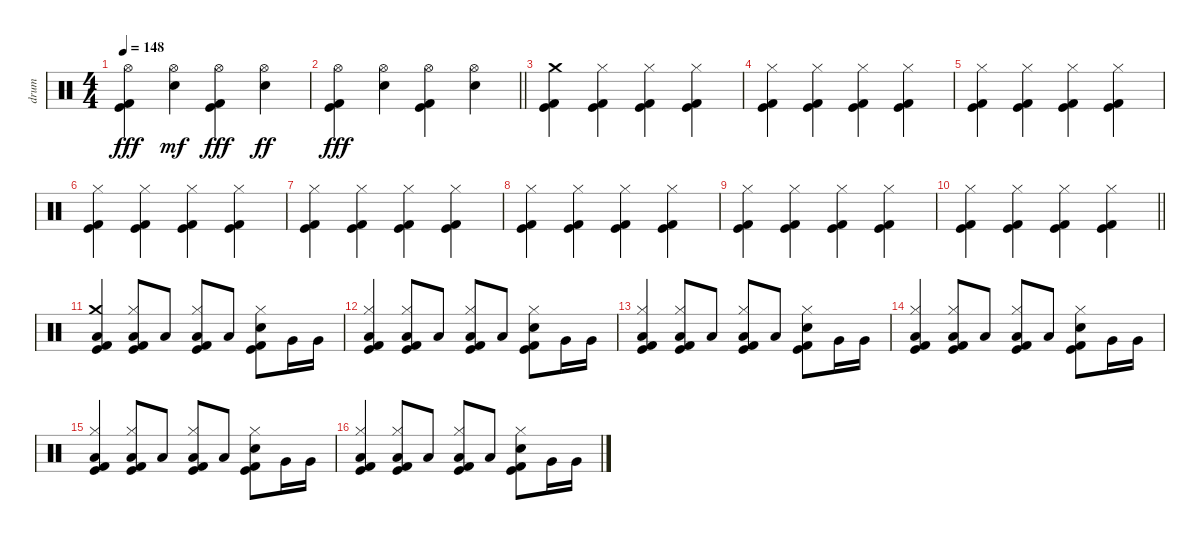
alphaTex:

\track ("drum" "drum") {instrument percussion}
\staff {score}
\articulation defaults
\ts (4 4)
\tempo 148
\clef neutral
\ks c
("Hi-Hat (open)" "Kick (hit)" "Kick (hit) 2").4{dy fff} ("Snare (hit) 2" "Hi-Hat (open)").4{dy mf} ("Hi-Hat (open)" "Kick (hit)" "Kick (hit) 2").4{dy fff} ("Snare (hit) 2" "Hi-Hat (open)").4{dy ff} |
\barLineRight lightlight
("Hi-Hat (open)" "Kick (hit)" "Kick (hit) 2").4{dy fff} ("Snare (hit) 2" "Hi-Hat (open)").4 ("Hi-Hat (open)" "Kick (hit)" "Kick (hit) 2").4 ("Snare (hit) 2" "Hi-Hat (open)").4 |
\section ("" "")
("Crash medium (hit)" "Kick (hit)" "Kick (hit) 2").4 ("Hi-Hat (closed)" "Kick (hit)" "Kick (hit) 2").4 ("Hi-Hat (closed)" "Kick (hit)" "Kick (hit) 2").4 ("Hi-Hat (closed)" "Kick (hit)" "Kick (hit) 2").4 |
("Hi-Hat (closed)" "Kick (hit)" "Kick (hit) 2").4 ("Hi-Hat (closed)" "Kick (hit)" "Kick (hit) 2").4 ("Hi-Hat (closed)" "Kick (hit)" "Kick (hit) 2").4 ("Hi-Hat (closed)" "Kick (hit)" "Kick (hit) 2").4 |
("Hi-Hat (closed)" "Kick (hit)" "Kick (hit) 2").4 ("Hi-Hat (closed)" "Kick (hit)" "Kick (hit) 2").4 ("Hi-Hat (closed)" "Kick (hit)" "Kick (hit) 2").4 ("Hi-Hat (closed)" "Kick (hit)" "Kick (hit) 2").4 |
("Hi-Hat (closed)" "Kick (hit)" "Kick (hit) 2").4 ("Hi-Hat (closed)" "Kick (hit)" "Kick (hit) 2").4 ("Hi-Hat (closed)" "Kick (hit)" "Kick (hit) 2").4 ("Hi-Hat (closed)" "Kick (hit)" "Kick (hit) 2").4 |
("Hi-Hat (closed)" "Kick (hit)" "Kick (hit) 2").4 ("Hi-Hat (closed)" "Kick (hit)" "Kick (hit) 2").4 ("Hi-Hat (closed)" "Kick (hit)" "Kick (hit) 2").4 ("Hi-Hat (closed)" "Kick (hit)" "Kick (hit) 2").4 |
("Hi-Hat (closed)" "Kick (hit)" "Kick (hit) 2").4 ("Hi-Hat (closed)" "Kick (hit)" "Kick (hit) 2").4 ("Hi-Hat (closed)" "Kick (hit)" "Kick (hit) 2").4 ("Hi-Hat (closed)" "Kick (hit)" "Kick (hit) 2").4 |
("Hi-Hat (closed)" "Kick (hit)" "Kick (hit) 2").4 ("Hi-Hat (closed)" "Kick (hit)" "Kick (hit) 2").4 ("Hi-Hat (closed)" "Kick (hit)" "Kick (hit) 2").4 ("Hi-Hat (closed)" "Kick (hit)" "Kick (hit) 2").4 |
\barLineRight lightlight
("Hi-Hat (closed)" "Kick (hit)" "Kick (hit) 2").4 ("Hi-Hat (closed)" "Kick (hit)" "Kick (hit) 2").4 ("Hi-Hat (closed)" "Kick (hit)" "Kick (hit) 2").4 ("Hi-Hat (closed)" "Kick (hit)" "Kick (hit) 2").4 |
("Crash medium (hit)" "Low Floor Tom (hit)" "Kick (hit)" "Kick (hit) 2").4 ("Low Floor Tom (hit)" "Hi-Hat (closed)" "Kick (hit)" "Kick (hit) 2").8 "Low Tom (hit)".8 ("Low Floor Tom (hit)" "Hi-Hat (closed)" "Kick (hit)" "Kick (hit) 2").8 "Low Floor Tom (hit)".8 ("Snare (hit) 2" "Hi-Hat (closed)" "Kick (hit)" "Kick (hit) 2").8 "Very Low Tom (hit)".16 "Very Low Tom (hit)".16 |
("Low Floor Tom (hit)" "Hi-Hat (closed)" "Kick (hit)" "Kick (hit) 2").4 ("Low Floor Tom (hit)" "Hi-Hat (closed)" "Kick (hit)" "Kick (hit) 2").8 "Low Tom (hit)".8 ("Low Floor Tom (hit)" "Hi-Hat (closed)" "Kick (hit)" "Kick (hit) 2").8 "Low Floor Tom (hit)".8 ("Snare (hit) 2" "Hi-Hat (closed)" "Kick (hit)" "Kick (hit) 2").8 "Very Low Tom (hit)".16 "Very Low Tom (hit)".16 |
("Low Floor Tom (hit)" "Hi-Hat (closed)" "Kick (hit)" "Kick (hit) 2").4 ("Low Floor Tom (hit)" "Hi-Hat (closed)" "Kick (hit)" "Kick (hit) 2").8 "Low Tom (hit)".8 ("Low Floor Tom (hit)" "Hi-Hat (closed)" "Kick (hit)" "Kick (hit) 2").8 "Low Floor Tom (hit)".8 ("Snare (hit) 2" "Hi-Hat (closed)" "Kick (hit)" "Kick (hit) 2").8 "Very Low Tom (hit)".16 "Very Low Tom (hit)".16 |
("Low Floor Tom (hit)" "Hi-Hat (closed)" "Kick (hit)" "Kick (hit) 2").4 ("Low Floor Tom (hit)" "Hi-Hat (closed)" "Kick (hit)" "Kick (hit) 2").8 "Low Tom (hit)".8 ("Low Floor Tom (hit)" "Hi-Hat (closed)" "Kick (hit)" "Kick (hit) 2").8 "Low Floor Tom (hit)".8 ("Snare (hit) 2" "Hi-Hat (closed)" "Kick (hit)" "Kick (hit) 2").8 "Very Low Tom (hit)".16 "Very Low Tom (hit)".16 |
("Low Floor Tom (hit)" "Hi-Hat (closed)" "Kick (hit)" "Kick (hit) 2").4 ("Low Floor Tom (hit)" "Hi-Hat (closed)" "Kick (hit)" "Kick (hit) 2").8 "Low Tom (hit)".8 ("Low Floor Tom (hit)" "Hi-Hat (closed)" "Kick (hit)" "Kick (hit) 2").8 "Low Floor Tom (hit)".8 ("Snare (hit) 2" "Hi-Hat (closed)" "Kick (hit)" "Kick (hit) 2").8 "Very Low Tom (hit)".16 "Very Low Tom (hit)".16 |
("Low Floor Tom (hit)" "Hi-Hat (closed)" "Kick (hit)" "Kick (hit) 2").4 ("Low Floor Tom (hit)" "Hi-Hat (closed)" "Kick (hit)" "Kick (hit) 2").8 "Low Tom (hit)".8 ("Low Floor Tom (hit)" "Hi-Hat (closed)" "Kick (hit)" "Kick (hit) 2").8 "Low Floor Tom (hit)".8 ("Snare (hit) 2" "Hi-Hat (closed)" "Kick (hit)" "Kick (hit) 2").8 "Very Low Tom (hit)".16 "Very Low Tom (hit)".16
